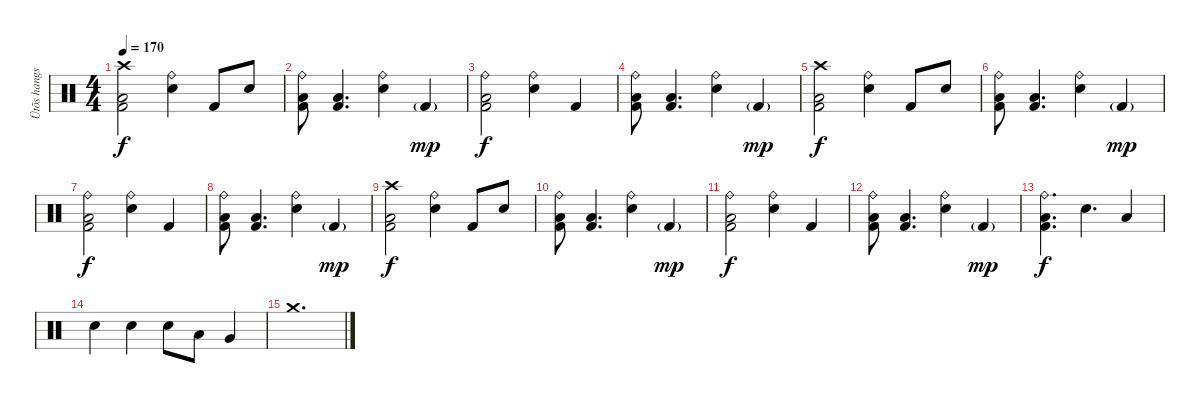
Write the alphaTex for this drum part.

\track ("Ütõs hangszer" "Ütõs hangs") {instrument percussion}
\staff {score}
\articulation defaults
\ts (4 4)
\section ("" "")
\tempo 170
\clef neutral
\ks c
("Crash high (hit)" "Kick (hit) 2" "Low Floor Tom (hit)").2{dy f} ("Ride (bell)" "Electric Snare (hit)").4 "Kick (hit) 2".8 "Electric Snare (hit)".8 |
("Ride (bell)" "Kick (hit) 2" "Low Floor Tom (hit)").8 ("Kick (hit) 2" "Low Floor Tom (hit)").4{d} ("Ride (bell)" "Electric Snare (hit)").4 "Kick (hit) 2"{g}.4{dy mp} |
("Ride (bell)" "Kick (hit) 2" "Low Floor Tom (hit)").2{dy f} ("Ride (bell)" "Electric Snare (hit)").4 "Kick (hit) 2".4 |
("Ride (bell)" "Kick (hit) 2" "Low Floor Tom (hit)").8 ("Kick (hit) 2" "Low Floor Tom (hit)").4{d} ("Ride (bell)" "Electric Snare (hit)").4 "Kick (hit) 2"{g}.4{dy mp} |
("Crash high (hit)" "Kick (hit) 2" "Low Floor Tom (hit)").2{dy f} ("Ride (bell)" "Electric Snare (hit)").4 "Kick (hit) 2".8 "Electric Snare (hit)".8 |
("Ride (bell)" "Kick (hit) 2" "Low Floor Tom (hit)").8 ("Kick (hit) 2" "Low Floor Tom (hit)").4{d} ("Ride (bell)" "Electric Snare (hit)").4 "Kick (hit) 2"{g}.4{dy mp} |
("Ride (bell)" "Kick (hit) 2" "Low Floor Tom (hit)").2{dy f} ("Ride (bell)" "Electric Snare (hit)").4 "Kick (hit) 2".4 |
("Ride (bell)" "Kick (hit) 2" "Low Floor Tom (hit)").8 ("Kick (hit) 2" "Low Floor Tom (hit)").4{d} ("Ride (bell)" "Electric Snare (hit)").4 "Kick (hit) 2"{g}.4{dy mp} |
("Crash high (hit)" "Kick (hit) 2" "Low Floor Tom (hit)").2{dy f} ("Ride (bell)" "Electric Snare (hit)").4 "Kick (hit) 2".8 "Electric Snare (hit)".8 |
("Ride (bell)" "Kick (hit) 2" "Low Floor Tom (hit)").8 ("Kick (hit) 2" "Low Floor Tom (hit)").4{d} ("Ride (bell)" "Electric Snare (hit)").4 "Kick (hit) 2"{g}.4{dy mp} |
("Ride (bell)" "Kick (hit) 2" "Low Floor Tom (hit)").2{dy f} ("Ride (bell)" "Electric Snare (hit)").4 "Kick (hit) 2".4 |
("Ride (bell)" "Kick (hit) 2" "Low Floor Tom (hit)").8 ("Kick (hit) 2" "Low Floor Tom (hit)").4{d} ("Ride (bell)" "Electric Snare (hit)").4 "Kick (hit) 2"{g}.4{dy mp} |
("Ride (bell)" "Kick (hit) 2" "Low Floor Tom (hit)").4{d dy f} "Electric Snare (hit)".4{d} "Low Tom (hit)".4 |
"Electric Snare (hit)".4 "Electric Snare (hit)".4 "Electric Snare (hit)".8 "Low Tom (hit)".8 "Very Low Tom (hit)".4 |
"Crash medium (hit)".1{d}
